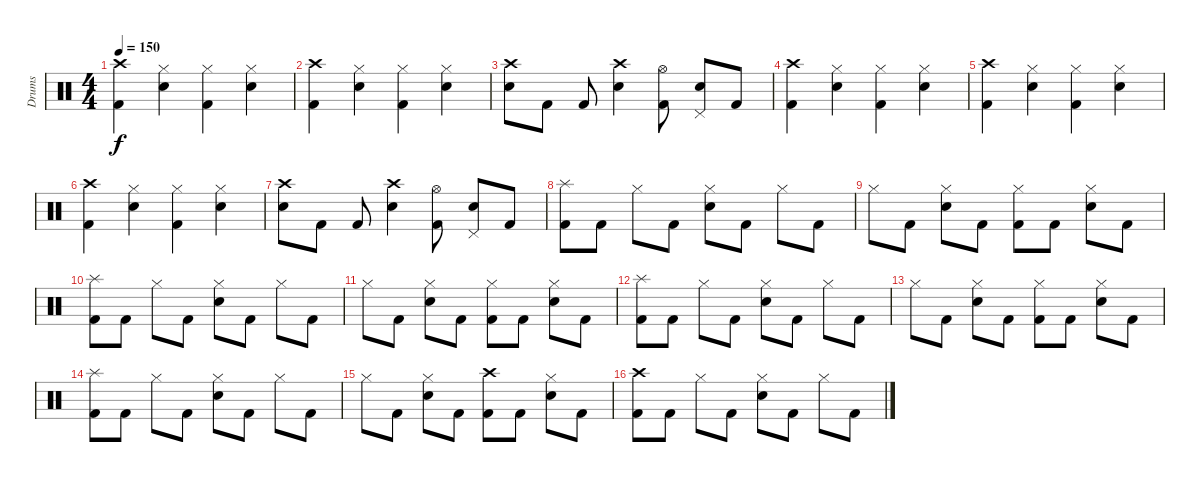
\track ("Drums" "Drums") {instrument percussion}
\staff {score}
\articulation defaults
\ts (4 4)
\tempo 150
\clef neutral
\ks c
("Crash high (hit)" "Kick (hit) 2").4{dy f} ("Hi-Hat (closed)" "Snare (hit) 2").4 ("Hi-Hat (closed)" "Kick (hit) 2").4 ("Snare (hit) 2" "Hi-Hat (closed)").4 |
("Kick (hit) 2" "Crash high (hit)").4 ("Snare (hit) 2" "Hi-Hat (closed)").4 ("Hi-Hat (closed)" "Kick (hit) 2").4 ("Snare (hit) 2" "Hi-Hat (closed)").4 |
("Crash high (hit)" "Snare (hit) 2").8 "Kick (hit) 2".8 "Kick (hit) 2".8 ("Crash high (hit)" "Snare (hit) 2").4 ("Hi-Hat (open)" "Kick (hit) 2").8 ("Pedal Hi-Hat (hit)" "Snare (hit) 2").8 "Kick (hit) 2".8 |
("Crash high (hit)" "Kick (hit) 2").4 ("Hi-Hat (closed)" "Snare (hit) 2").4 ("Kick (hit) 2" "Hi-Hat (closed)").4 ("Hi-Hat (closed)" "Snare (hit) 2").4 |
("Kick (hit) 2" "Crash high (hit)").4 ("Snare (hit) 2" "Hi-Hat (closed)").4 ("Kick (hit) 2" "Hi-Hat (closed)").4 ("Snare (hit) 2" "Hi-Hat (closed)").4 |
("Crash high (hit)" "Kick (hit) 2").4 ("Snare (hit) 2" "Hi-Hat (closed)").4 ("Hi-Hat (closed)" "Kick (hit) 2").4 ("Snare (hit) 2" "Hi-Hat (closed)").4 |
("Crash high (hit)" "Snare (hit) 2").8 "Kick (hit) 2".8 "Kick (hit) 2".8 ("Crash high (hit)" "Snare (hit) 2").4 ("Kick (hit) 2" "Hi-Hat (open)").8 ("Pedal Hi-Hat (hit)" "Snare (hit) 2").8 "Kick (hit) 2".8 |
("Splash (hit)" "Kick (hit) 2").8 "Kick (hit) 2".8 "Hi-Hat (closed)".8 "Kick (hit) 2".8 ("Snare (hit) 2" "Hi-Hat (closed)").8 "Kick (hit) 2".8 "Hi-Hat (closed)".8 "Kick (hit) 2".8 |
"Hi-Hat (closed)".8 "Kick (hit) 2".8 ("Hi-Hat (closed)" "Snare (hit) 2").8 "Kick (hit) 2".8 ("Kick (hit) 2" "Hi-Hat (closed)").8 "Kick (hit) 2".8 ("Hi-Hat (closed)" "Snare (hit) 2").8 "Kick (hit) 2".8 |
("Kick (hit) 2" "Splash (hit)").8 "Kick (hit) 2".8 "Hi-Hat (closed)".8 "Kick (hit) 2".8 ("Hi-Hat (closed)" "Snare (hit) 2").8 "Kick (hit) 2".8 "Hi-Hat (closed)".8 "Kick (hit) 2".8 |
"Hi-Hat (closed)".8 "Kick (hit) 2".8 ("Snare (hit) 2" "Hi-Hat (closed)").8 "Kick (hit) 2".8 ("Kick (hit) 2" "Hi-Hat (closed)").8 "Kick (hit) 2".8 ("Snare (hit) 2" "Hi-Hat (closed)").8 "Kick (hit) 2".8 |
("Kick (hit) 2" "Splash (hit)").8 "Kick (hit) 2".8 "Hi-Hat (closed)".8 "Kick (hit) 2".8 ("Hi-Hat (closed)" "Snare (hit) 2").8 "Kick (hit) 2".8 "Hi-Hat (closed)".8 "Kick (hit) 2".8 |
"Hi-Hat (closed)".8 "Kick (hit) 2".8 ("Snare (hit) 2" "Hi-Hat (closed)").8 "Kick (hit) 2".8 ("Kick (hit) 2" "Hi-Hat (closed)").8 "Kick (hit) 2".8 ("Snare (hit) 2" "Hi-Hat (closed)").8 "Kick (hit) 2".8 |
("Splash (hit)" "Kick (hit) 2").8 "Kick (hit) 2".8 "Hi-Hat (closed)".8 "Kick (hit) 2".8 ("Hi-Hat (closed)" "Snare (hit) 2").8 "Kick (hit) 2".8 "Hi-Hat (closed)".8 "Kick (hit) 2".8 |
"Hi-Hat (closed)".8 "Kick (hit) 2".8 ("Snare (hit) 2" "Hi-Hat (closed)").8 "Kick (hit) 2".8 ("Kick (hit) 2" "Crash high (hit)").8 "Kick (hit) 2".8 ("Hi-Hat (closed)" "Snare (hit) 2").8 "Kick (hit) 2".8 |
("Crash high (hit)" "Kick (hit) 2").8 "Kick (hit) 2".8 "Hi-Hat (closed)".8 "Kick (hit) 2".8 ("Hi-Hat (closed)" "Snare (hit) 2").8 "Kick (hit) 2".8 "Hi-Hat (closed)".8 "Kick (hit) 2".8
